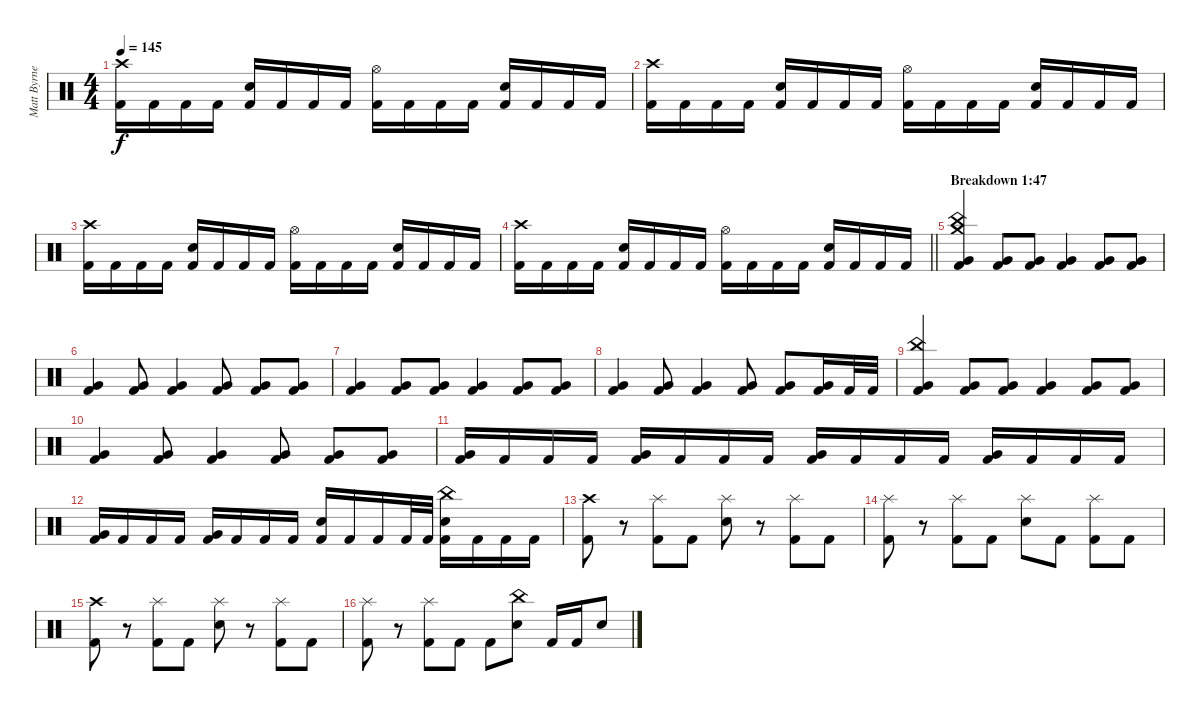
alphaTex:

\track ("Matt Byrne, Drums" "Matt Byrne") {instrument percussion}
\staff {score}
\articulation defaults
\ts (4 4)
\tempo 145
\clef neutral
\ks c
("Crash high (hit)" "Kick (hit) 2").16{dy f} "Kick (hit) 2".16 "Kick (hit) 2".16 "Kick (hit) 2".16 ("Electric Snare (hit)" "Kick (hit) 2").16 "Kick (hit) 2".16 "Kick (hit) 2".16 "Kick (hit) 2".16 ("Hi-Hat (open)" "Kick (hit) 2").16 "Kick (hit) 2".16 "Kick (hit) 2".16 "Kick (hit) 2".16 ("Electric Snare (hit)" "Kick (hit) 2").16 "Kick (hit) 2".16 "Kick (hit) 2".16 "Kick (hit) 2".16 |
("Crash high (hit)" "Kick (hit) 2").16 "Kick (hit) 2".16 "Kick (hit) 2".16 "Kick (hit) 2".16 ("Electric Snare (hit)" "Kick (hit) 2").16 "Kick (hit) 2".16 "Kick (hit) 2".16 "Kick (hit) 2".16 ("Hi-Hat (open)" "Kick (hit) 2").16 "Kick (hit) 2".16 "Kick (hit) 2".16 "Kick (hit) 2".16 ("Electric Snare (hit)" "Kick (hit) 2").16 "Kick (hit) 2".16 "Kick (hit) 2".16 "Kick (hit) 2".16 |
("Crash high (hit)" "Kick (hit) 2").16 "Kick (hit) 2".16 "Kick (hit) 2".16 "Kick (hit) 2".16 ("Electric Snare (hit)" "Kick (hit) 2").16 "Kick (hit) 2".16 "Kick (hit) 2".16 "Kick (hit) 2".16 ("Hi-Hat (open)" "Kick (hit) 2").16 "Kick (hit) 2".16 "Kick (hit) 2".16 "Kick (hit) 2".16 ("Electric Snare (hit)" "Kick (hit) 2").16 "Kick (hit) 2".16 "Kick (hit) 2".16 "Kick (hit) 2".16 |
\barLineRight lightlight
("Crash high (hit)" "Kick (hit) 2").16 "Kick (hit) 2".16 "Kick (hit) 2".16 "Kick (hit) 2".16 ("Electric Snare (hit)" "Kick (hit) 2").16 "Kick (hit) 2".16 "Kick (hit) 2".16 "Kick (hit) 2".16 ("Hi-Hat (open)" "Kick (hit) 2").16 "Kick (hit) 2".16 "Kick (hit) 2".16 "Kick (hit) 2".16 ("Electric Snare (hit)" "Kick (hit) 2").16 "Kick (hit) 2".16 "Kick (hit) 2".16 "Kick (hit) 2".16 |
\section ("" "Breakdown 1:47")
("Crash medium (hit)" "China (hit)" "Very Low Tom (hit)" "Kick (hit) 2").4 ("Very Low Tom (hit)" "Kick (hit) 2").8 ("Very Low Tom (hit)" "Kick (hit) 2").8 ("Very Low Tom (hit)" "Kick (hit) 2").4 ("Very Low Tom (hit)" "Kick (hit) 2").8 ("Very Low Tom (hit)" "Kick (hit) 2").8 |
("Very Low Tom (hit)" "Kick (hit) 2").4 ("Very Low Tom (hit)" "Kick (hit) 2").8 ("Very Low Tom (hit)" "Kick (hit) 2").4 ("Very Low Tom (hit)" "Kick (hit) 2").8 ("Very Low Tom (hit)" "Kick (hit) 2").8 ("Very Low Tom (hit)" "Kick (hit) 2").8 |
("Very Low Tom (hit)" "Kick (hit) 2").4 ("Very Low Tom (hit)" "Kick (hit) 2").8 ("Very Low Tom (hit)" "Kick (hit) 2").8 ("Very Low Tom (hit)" "Kick (hit) 2").4 ("Very Low Tom (hit)" "Kick (hit) 2").8 ("Very Low Tom (hit)" "Kick (hit) 2").8 |
("Very Low Tom (hit)" "Kick (hit) 2").4 ("Very Low Tom (hit)" "Kick (hit) 2").8 ("Very Low Tom (hit)" "Kick (hit) 2").4 ("Very Low Tom (hit)" "Kick (hit) 2").8 ("Very Low Tom (hit)" "Kick (hit) 2").8 ("Very Low Tom (hit)" "Kick (hit) 2").16 "Kick (hit) 2".32 "Kick (hit) 2".32 |
("China (hit)" "Very Low Tom (hit)" "Kick (hit) 2").4 ("Very Low Tom (hit)" "Kick (hit) 2").8 ("Very Low Tom (hit)" "Kick (hit) 2").8 ("Very Low Tom (hit)" "Kick (hit) 2").4 ("Very Low Tom (hit)" "Kick (hit) 2").8 ("Very Low Tom (hit)" "Kick (hit) 2").8 |
("Very Low Tom (hit)" "Kick (hit) 2").4 ("Very Low Tom (hit)" "Kick (hit) 2").8 ("Very Low Tom (hit)" "Kick (hit) 2").4 ("Very Low Tom (hit)" "Kick (hit) 2").8 ("Very Low Tom (hit)" "Kick (hit) 2").8 ("Very Low Tom (hit)" "Kick (hit) 2").8 |
("Very Low Tom (hit)" "Kick (hit) 2").16 "Kick (hit) 2".16 "Kick (hit) 2".16 "Kick (hit) 2".16 ("Very Low Tom (hit)" "Kick (hit) 2").16 "Kick (hit) 2".16 "Kick (hit) 2".16 "Kick (hit) 2".16 ("Very Low Tom (hit)" "Kick (hit) 2").16 "Kick (hit) 2".16 "Kick (hit) 2".16 "Kick (hit) 2".16 ("Very Low Tom (hit)" "Kick (hit) 2").16 "Kick (hit) 2".16 "Kick (hit) 2".16 "Kick (hit) 2".16 |
("Very Low Tom (hit)" "Kick (hit) 2").16 "Kick (hit) 2".16 "Kick (hit) 2".16 "Kick (hit) 2".16 ("Very Low Tom (hit)" "Kick (hit) 2").16 "Kick (hit) 2".16 "Kick (hit) 2".16 "Kick (hit) 2".16 ("Electric Snare (hit)" "Kick (hit) 2").16 "Kick (hit) 2".16 "Kick (hit) 2".16 "Kick (hit) 2".32 "Kick (hit) 2".32 ("China (hit)" "Electric Snare (hit)" "Kick (hit) 2").16 "Kick (hit) 2".16 "Kick (hit) 2".16 "Kick (hit) 2".16 |
("Crash high (hit)" "Kick (hit) 2").8 r.8 ("Splash (hit)" "Kick (hit) 2").8 "Kick (hit) 2".8 ("Splash (hit)" "Electric Snare (hit)").8 r.8 ("Splash (hit)" "Kick (hit) 2").8 "Kick (hit) 2".8 |
("Splash (hit)" "Kick (hit) 2").8 r.8 ("Splash (hit)" "Kick (hit) 2").8 "Kick (hit) 2".8 ("Splash (hit)" "Electric Snare (hit)").8 "Kick (hit) 2".8 ("Splash (hit)" "Kick (hit) 2").8 "Kick (hit) 2".8 |
("Crash high (hit)" "Kick (hit) 2").8 r.8 ("Splash (hit)" "Kick (hit) 2").8 "Kick (hit) 2".8 ("Splash (hit)" "Electric Snare (hit)").8 r.8 ("Splash (hit)" "Kick (hit) 2").8 "Kick (hit) 2".8 |
("Splash (hit)" "Kick (hit) 2").8 r.8 ("Splash (hit)" "Kick (hit) 2").8 "Kick (hit) 2".8 "Kick (hit) 2".8 ("China (hit)" "Electric Snare (hit)").8 "Kick (hit) 2".16 "Kick (hit) 2".16 "Electric Snare (hit)".8
